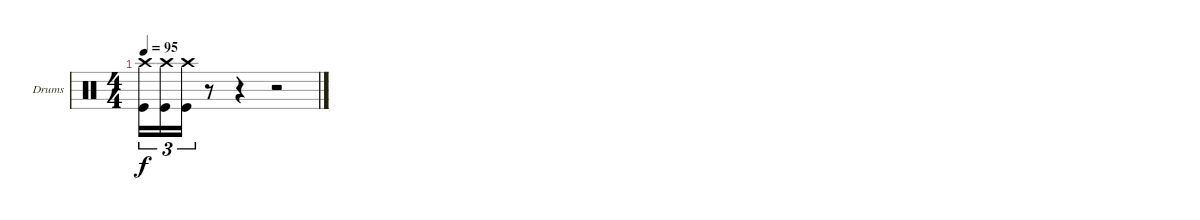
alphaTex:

\bracketExtendMode groupsimilarinstruments
\firstSystemTrackNameOrientation horizontal
\otherSystemsTrackNameOrientation horizontal
\track ("Drumkit" "Drums") {instrument percussion}
\staff {score}
\articulation defaults
\ts (4 4)
\tempo 95
\clef neutral
\ks c
("Crash high (hit)" "Kick (hit)").16{tu (3 2) dy f} ("Crash high (hit)" "Kick (hit)").16{tu (3 2)} ("Crash high (hit)" "Kick (hit)").16{tu (3 2)} r.8 r.4 r.2
